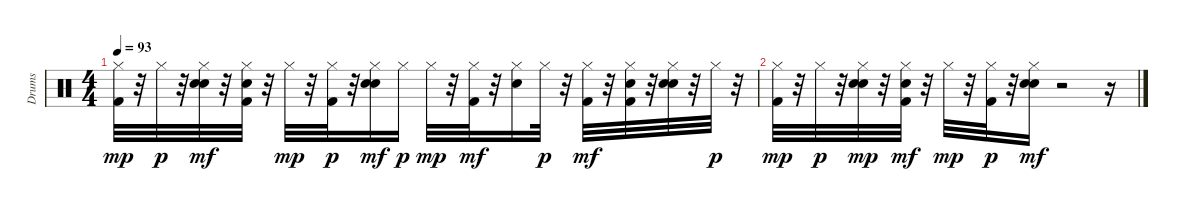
\track ("Drums" "Drums") {instrument percussion}
\staff {score}
\articulation defaults
\ts (4 4)
\tempo 93
\clef neutral
\ks c
("Kick (hit) 2" "Hi-Hat (closed)").32{dy mp} r.32 "Hi-Hat (closed)".32{dy p} r.32 ("Electric Snare (hit)" "Hi-Hat (closed)" "Hand Clap (hit)").32{dy mf} r.32 ("Hand Clap (hit)" "Hi-Hat (closed)" "Kick (hit) 2").32 r.32 "Hi-Hat (closed)".32{dy mp} r.32 ("Kick (hit) 2" "Hi-Hat (closed)").32{dy p} r.32 ("Hand Clap (hit)" "Hi-Hat (closed)" "Electric Snare (hit)").16{dy mf} "Hi-Hat (closed)".16{dy p} "Hi-Hat (closed)".32{dy mp} r.32 ("Hi-Hat (closed)" "Kick (hit) 2").32{dy mf} r.32 ("Hi-Hat (closed)" "Electric Snare (hit)").16 "Hi-Hat (closed)".32{dy p} r.32 ("Hi-Hat (closed)" "Kick (hit) 2").32{dy mf} r.32 ("Hi-Hat (closed)" "Hand Clap (hit)" "Kick (hit) 2").32 r.32 ("Hi-Hat (closed)" "Hand Clap (hit)" "Electric Snare (hit)").32 r.32 "Hi-Hat (closed)".32{dy p} r.32 |
("Kick (hit) 2" "Hi-Hat (closed)").32{dy mp} r.32 "Hi-Hat (closed)".32{dy p} r.32 ("Electric Snare (hit)" "Hand Clap (hit)" "Hi-Hat (closed)").32{dy mp} r.32 ("Hi-Hat (closed)" "Hand Clap (hit)" "Kick (hit) 2").32{dy mf} r.32 "Hi-Hat (closed)".32{dy mp} r.32 ("Kick (hit) 2" "Hi-Hat (closed)").32{dy p} r.32 ("Hi-Hat (closed)" "Hand Clap (hit)" "Electric Snare (hit)").16{dy mf} r.2 r.16
